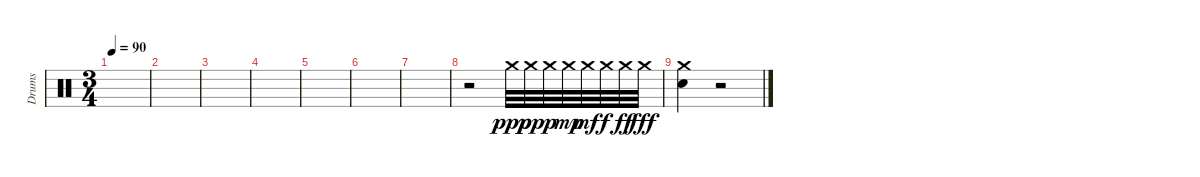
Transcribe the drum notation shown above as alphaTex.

\track ("Drums" "Drums") {instrument percussion}
\staff {score}
\articulation defaults
\ts (3 4)
\tempo 90
\clef neutral
\ks c
|
|
|
|
|
|
|
r.2 "Crash medium (hit)".32{dy ppp} "Crash medium (hit)".32{dy pp} "Crash medium (hit)".32{dy p} "Crash medium (hit)".32{dy mp} "Crash medium (hit)".32{dy mf} "Crash medium (hit)".32{dy f} "Crash medium (hit)".32{dy ff} "Crash medium (hit)".32{dy fff} |
("Crash medium (hit)" "Electric Snare (hit)").4 r.2
